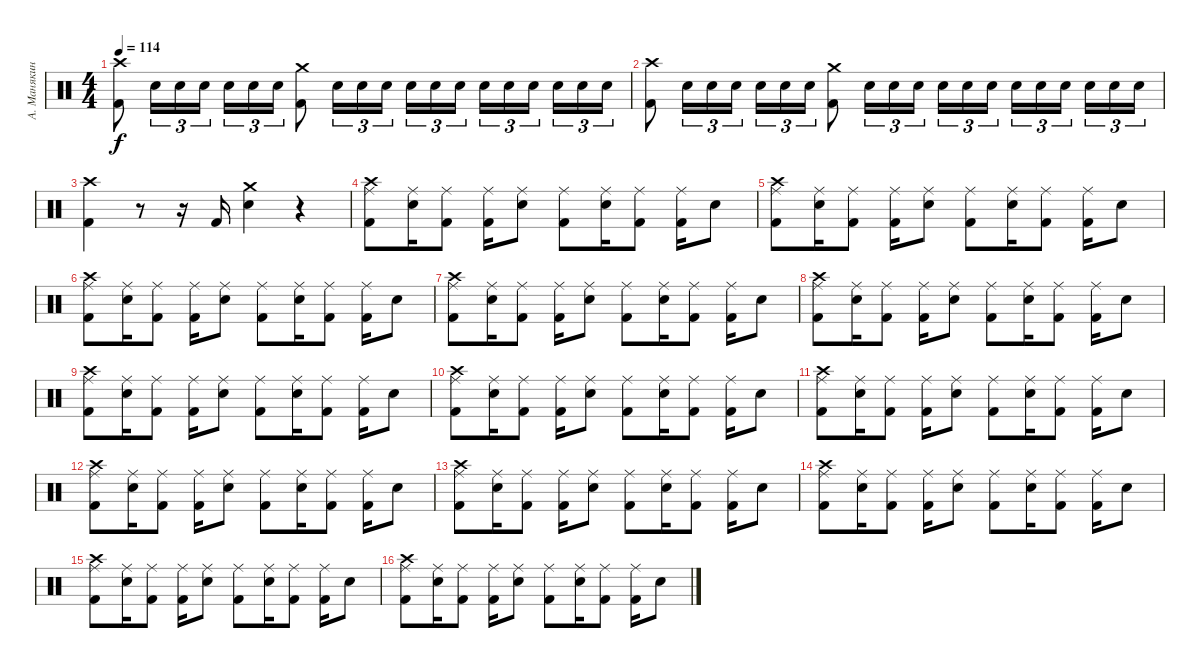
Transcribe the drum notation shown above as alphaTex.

\track ("А. Манякин" "А. Манякин") {instrument percussion}
\staff {score}
\articulation defaults
\ts (4 4)
\tempo 114
\clef neutral
\ks c
("Kick (hit) 2" "Crash high (hit)").8{dy f} "Electric Snare (hit)".16{tu (3 2)} "Electric Snare (hit)".16{tu (3 2)} "Electric Snare (hit)".16{tu (3 2)} "Electric Snare (hit)".16{tu (3 2)} "Electric Snare (hit)".16{tu (3 2)} "Electric Snare (hit)".16{tu (3 2)} ("Kick (hit) 2" "Crash medium (hit)").8 "Electric Snare (hit)".16{tu (3 2)} "Electric Snare (hit)".16{tu (3 2)} "Electric Snare (hit)".16{tu (3 2)} "Electric Snare (hit)".16{tu (3 2)} "Electric Snare (hit)".16{tu (3 2)} "Electric Snare (hit)".16{tu (3 2)} "Electric Snare (hit)".16{tu (3 2)} "Electric Snare (hit)".16{tu (3 2)} "Electric Snare (hit)".16{tu (3 2)} "Electric Snare (hit)".16{tu (3 2)} "Electric Snare (hit)".16{tu (3 2)} "Electric Snare (hit)".16{tu (3 2)} |
("Kick (hit) 2" "Crash high (hit)").8 "Electric Snare (hit)".16{tu (3 2)} "Electric Snare (hit)".16{tu (3 2)} "Electric Snare (hit)".16{tu (3 2)} "Electric Snare (hit)".16{tu (3 2)} "Electric Snare (hit)".16{tu (3 2)} "Electric Snare (hit)".16{tu (3 2)} ("Kick (hit) 2" "Crash medium (hit)").8 "Electric Snare (hit)".16{tu (3 2)} "Electric Snare (hit)".16{tu (3 2)} "Electric Snare (hit)".16{tu (3 2)} "Electric Snare (hit)".16{tu (3 2)} "Electric Snare (hit)".16{tu (3 2)} "Electric Snare (hit)".16{tu (3 2)} "Electric Snare (hit)".16{tu (3 2)} "Electric Snare (hit)".16{tu (3 2)} "Electric Snare (hit)".16{tu (3 2)} "Electric Snare (hit)".16{tu (3 2)} "Electric Snare (hit)".16{tu (3 2)} "Electric Snare (hit)".16{tu (3 2)} |
("Kick (hit) 2" "Crash high (hit)").4 r.8 r.16 "Kick (hit) 2".16 ("Electric Snare (hit)" "Crash medium (hit)").4 r.4 |
("Kick (hit) 2" "Crash high (hit)" "Ride (middle)").8 ("Electric Snare (hit)" "Ride (middle)").16 ("Kick (hit) 2" "Ride (middle)").8 ("Kick (hit) 2" "Ride (middle)").16 ("Electric Snare (hit)" "Ride (middle)").8 ("Kick (hit) 2" "Ride (middle)").8 ("Electric Snare (hit)" "Ride (middle)").16 ("Kick (hit) 2" "Ride (middle)").8 ("Kick (hit) 2" "Ride (middle)").16 "Electric Snare (hit)".8 |
("Kick (hit) 2" "Crash high (hit)" "Ride (middle)").8 ("Electric Snare (hit)" "Ride (middle)").16 ("Kick (hit) 2" "Ride (middle)").8 ("Kick (hit) 2" "Ride (middle)").16 ("Electric Snare (hit)" "Ride (middle)").8 ("Kick (hit) 2" "Ride (middle)").8 ("Electric Snare (hit)" "Ride (middle)").16 ("Kick (hit) 2" "Ride (middle)").8 ("Kick (hit) 2" "Ride (middle)").16 "Electric Snare (hit)".8 |
("Kick (hit) 2" "Crash high (hit)" "Ride (middle)").8 ("Electric Snare (hit)" "Ride (middle)").16 ("Kick (hit) 2" "Ride (middle)").8 ("Kick (hit) 2" "Ride (middle)").16 ("Electric Snare (hit)" "Ride (middle)").8 ("Kick (hit) 2" "Ride (middle)").8 ("Electric Snare (hit)" "Ride (middle)").16 ("Kick (hit) 2" "Ride (middle)").8 ("Kick (hit) 2" "Ride (middle)").16 "Electric Snare (hit)".8 |
("Kick (hit) 2" "Crash high (hit)" "Ride (middle)").8 ("Electric Snare (hit)" "Ride (middle)").16 ("Kick (hit) 2" "Ride (middle)").8 ("Kick (hit) 2" "Ride (middle)").16 ("Electric Snare (hit)" "Ride (middle)").8 ("Kick (hit) 2" "Ride (middle)").8 ("Electric Snare (hit)" "Ride (middle)").16 ("Kick (hit) 2" "Ride (middle)").8 ("Kick (hit) 2" "Ride (middle)").16 "Electric Snare (hit)".8 |
("Kick (hit) 2" "Crash high (hit)" "Ride (middle)").8 ("Electric Snare (hit)" "Ride (middle)").16 ("Kick (hit) 2" "Ride (middle)").8 ("Kick (hit) 2" "Ride (middle)").16 ("Electric Snare (hit)" "Ride (middle)").8 ("Kick (hit) 2" "Ride (middle)").8 ("Electric Snare (hit)" "Ride (middle)").16 ("Kick (hit) 2" "Ride (middle)").8 ("Kick (hit) 2" "Ride (middle)").16 "Electric Snare (hit)".8 |
("Kick (hit) 2" "Crash high (hit)" "Ride (middle)").8 ("Electric Snare (hit)" "Ride (middle)").16 ("Kick (hit) 2" "Ride (middle)").8 ("Kick (hit) 2" "Ride (middle)").16 ("Electric Snare (hit)" "Ride (middle)").8 ("Kick (hit) 2" "Ride (middle)").8 ("Electric Snare (hit)" "Ride (middle)").16 ("Kick (hit) 2" "Ride (middle)").8 ("Kick (hit) 2" "Ride (middle)").16 "Electric Snare (hit)".8 |
("Kick (hit) 2" "Crash high (hit)" "Ride (middle)").8 ("Electric Snare (hit)" "Ride (middle)").16 ("Kick (hit) 2" "Ride (middle)").8 ("Kick (hit) 2" "Ride (middle)").16 ("Electric Snare (hit)" "Ride (middle)").8 ("Kick (hit) 2" "Ride (middle)").8 ("Electric Snare (hit)" "Ride (middle)").16 ("Kick (hit) 2" "Ride (middle)").8 ("Kick (hit) 2" "Ride (middle)").16 "Electric Snare (hit)".8 |
("Kick (hit) 2" "Crash high (hit)" "Ride (middle)").8 ("Electric Snare (hit)" "Ride (middle)").16 ("Kick (hit) 2" "Ride (middle)").8 ("Kick (hit) 2" "Ride (middle)").16 ("Electric Snare (hit)" "Ride (middle)").8 ("Kick (hit) 2" "Ride (middle)").8 ("Electric Snare (hit)" "Ride (middle)").16 ("Kick (hit) 2" "Ride (middle)").8 ("Kick (hit) 2" "Ride (middle)").16 "Electric Snare (hit)".8 |
("Kick (hit) 2" "Crash high (hit)" "Ride (middle)").8 ("Electric Snare (hit)" "Ride (middle)").16 ("Kick (hit) 2" "Ride (middle)").8 ("Kick (hit) 2" "Ride (middle)").16 ("Electric Snare (hit)" "Ride (middle)").8 ("Kick (hit) 2" "Ride (middle)").8 ("Electric Snare (hit)" "Ride (middle)").16 ("Kick (hit) 2" "Ride (middle)").8 ("Kick (hit) 2" "Ride (middle)").16 "Electric Snare (hit)".8 |
("Kick (hit) 2" "Crash high (hit)" "Ride (middle)").8 ("Electric Snare (hit)" "Ride (middle)").16 ("Kick (hit) 2" "Ride (middle)").8 ("Kick (hit) 2" "Ride (middle)").16 ("Electric Snare (hit)" "Ride (middle)").8 ("Kick (hit) 2" "Ride (middle)").8 ("Electric Snare (hit)" "Ride (middle)").16 ("Kick (hit) 2" "Ride (middle)").8 ("Kick (hit) 2" "Ride (middle)").16 "Electric Snare (hit)".8 |
("Kick (hit) 2" "Crash high (hit)" "Ride (middle)").8 ("Electric Snare (hit)" "Ride (middle)").16 ("Kick (hit) 2" "Ride (middle)").8 ("Kick (hit) 2" "Ride (middle)").16 ("Electric Snare (hit)" "Ride (middle)").8 ("Kick (hit) 2" "Ride (middle)").8 ("Electric Snare (hit)" "Ride (middle)").16 ("Kick (hit) 2" "Ride (middle)").8 ("Kick (hit) 2" "Ride (middle)").16 "Electric Snare (hit)".8 |
("Kick (hit) 2" "Crash high (hit)" "Ride (middle)").8 ("Electric Snare (hit)" "Ride (middle)").16 ("Kick (hit) 2" "Ride (middle)").8 ("Kick (hit) 2" "Ride (middle)").16 ("Electric Snare (hit)" "Ride (middle)").8 ("Kick (hit) 2" "Ride (middle)").8 ("Electric Snare (hit)" "Ride (middle)").16 ("Kick (hit) 2" "Ride (middle)").8 ("Kick (hit) 2" "Ride (middle)").16 "Electric Snare (hit)".8 |
("Kick (hit) 2" "Crash high (hit)" "Ride (middle)").8 ("Electric Snare (hit)" "Ride (middle)").16 ("Kick (hit) 2" "Ride (middle)").8 ("Kick (hit) 2" "Ride (middle)").16 ("Electric Snare (hit)" "Ride (middle)").8 ("Kick (hit) 2" "Ride (middle)").8 ("Electric Snare (hit)" "Ride (middle)").16 ("Kick (hit) 2" "Ride (middle)").8 ("Kick (hit) 2" "Ride (middle)").16 "Electric Snare (hit)".8
